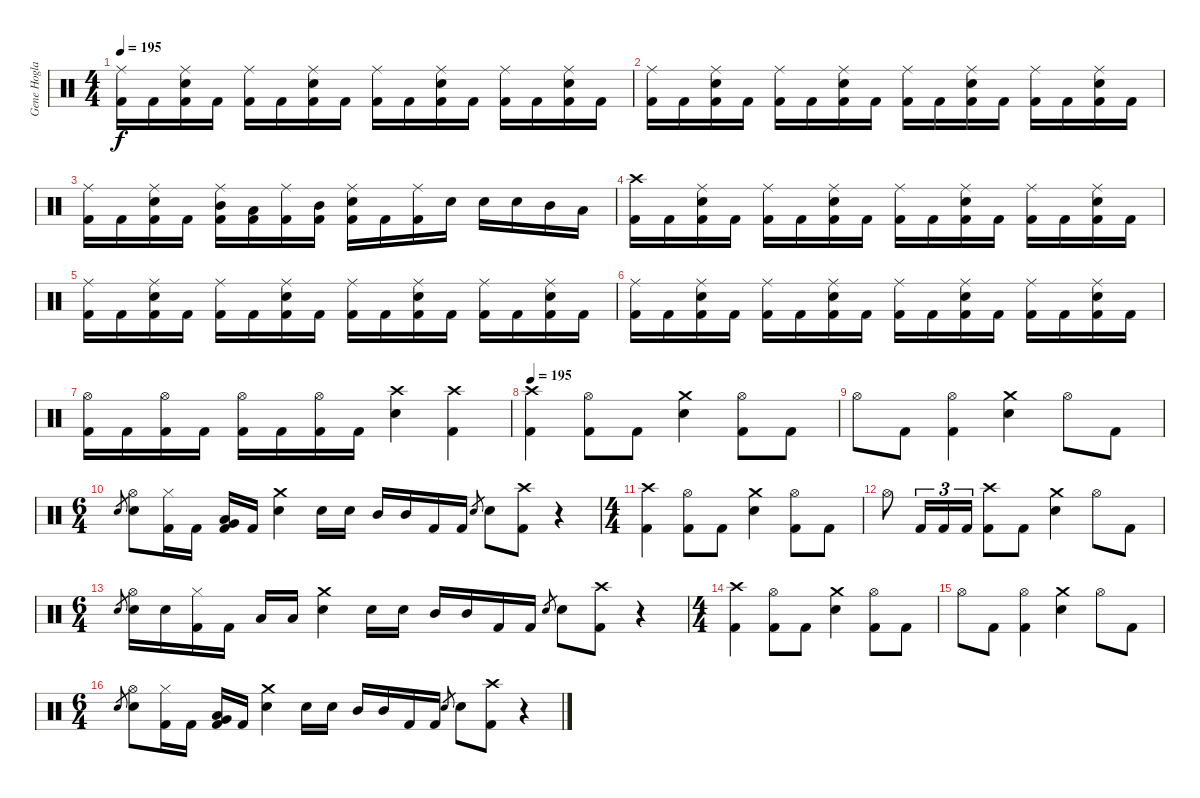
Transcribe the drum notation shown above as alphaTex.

\track ("Gene Hoglan" "Gene Hogla") {instrument percussion}
\staff {score}
\articulation defaults
\ts (4 4)
\tempo 195
\clef neutral
\ks c
("Ride (middle)" "Kick (hit) 2").16{dy f} "Kick (hit) 2".16 ("Ride (middle)" "Electric Snare (hit)" "Kick (hit) 2").16 "Kick (hit) 2".16 ("Ride (middle)" "Kick (hit) 2").16 "Kick (hit) 2".16 ("Ride (middle)" "Electric Snare (hit)" "Kick (hit) 2").16 "Kick (hit) 2".16 ("Ride (middle)" "Kick (hit) 2").16 "Kick (hit) 2".16 ("Ride (middle)" "Electric Snare (hit)" "Kick (hit) 2").16 "Kick (hit) 2".16 ("Ride (middle)" "Kick (hit) 2").16 "Kick (hit) 2".16 ("Ride (middle)" "Electric Snare (hit)" "Kick (hit) 2").16 "Kick (hit) 2".16 |
("Ride (middle)" "Kick (hit) 2").16 "Kick (hit) 2".16 ("Ride (middle)" "Electric Snare (hit)" "Kick (hit) 2").16 "Kick (hit) 2".16 ("Ride (middle)" "Kick (hit) 2").16 "Kick (hit) 2".16 ("Ride (middle)" "Electric Snare (hit)" "Kick (hit) 2").16 "Kick (hit) 2".16 ("Ride (middle)" "Kick (hit) 2").16 "Kick (hit) 2".16 ("Ride (middle)" "Electric Snare (hit)" "Kick (hit) 2").16 "Kick (hit) 2".16 ("Ride (middle)" "Kick (hit) 2").16 "Kick (hit) 2".16 ("Ride (middle)" "Electric Snare (hit)" "Kick (hit) 2").16 "Kick (hit) 2".16 |
("Ride (middle)" "Kick (hit) 2").16 "Kick (hit) 2".16 ("Ride (middle)" "Electric Snare (hit)" "Kick (hit) 2").16 "Kick (hit) 2".16 ("Ride (middle)" "Mid Tom (hit)" "Kick (hit) 2").16 ("Low Tom (hit)" "Kick (hit) 2").16 ("Ride (middle)" "Kick (hit) 2").16 ("Mid Tom (hit)" "Kick (hit) 2").16 ("Ride (middle)" "Electric Snare (hit)" "Kick (hit) 2").16 "Kick (hit) 2".16 ("Ride (middle)" "Kick (hit) 2").16 "Electric Snare (hit)".16 "Electric Snare (hit)".16 "Electric Snare (hit)".16 "Mid Tom (hit)".16 "Low Tom (hit)".16 |
("Crash high (hit)" "Kick (hit) 2").16 "Kick (hit) 2".16 ("Ride (middle)" "Electric Snare (hit)" "Kick (hit) 2").16 "Kick (hit) 2".16 ("Ride (middle)" "Kick (hit) 2").16 "Kick (hit) 2".16 ("Ride (middle)" "Electric Snare (hit)" "Kick (hit) 2").16 "Kick (hit) 2".16 ("Ride (middle)" "Kick (hit) 2").16 "Kick (hit) 2".16 ("Ride (middle)" "Electric Snare (hit)" "Kick (hit) 2").16 "Kick (hit) 2".16 ("Ride (middle)" "Kick (hit) 2").16 "Kick (hit) 2".16 ("Ride (middle)" "Electric Snare (hit)" "Kick (hit) 2").16 "Kick (hit) 2".16 |
("Ride (middle)" "Kick (hit) 2").16 "Kick (hit) 2".16 ("Ride (middle)" "Electric Snare (hit)" "Kick (hit) 2").16 "Kick (hit) 2".16 ("Ride (middle)" "Kick (hit) 2").16 "Kick (hit) 2".16 ("Ride (middle)" "Electric Snare (hit)" "Kick (hit) 2").16 "Kick (hit) 2".16 ("Ride (middle)" "Kick (hit) 2").16 "Kick (hit) 2".16 ("Ride (middle)" "Electric Snare (hit)" "Kick (hit) 2").16 "Kick (hit) 2".16 ("Ride (middle)" "Kick (hit) 2").16 "Kick (hit) 2".16 ("Ride (middle)" "Electric Snare (hit)" "Kick (hit) 2").16 "Kick (hit) 2".16 |
("Ride (middle)" "Kick (hit) 2").16 "Kick (hit) 2".16 ("Ride (middle)" "Electric Snare (hit)" "Kick (hit) 2").16 "Kick (hit) 2".16 ("Ride (middle)" "Kick (hit) 2").16 "Kick (hit) 2".16 ("Ride (middle)" "Electric Snare (hit)" "Kick (hit) 2").16 "Kick (hit) 2".16 ("Ride (middle)" "Kick (hit) 2").16 "Kick (hit) 2".16 ("Ride (middle)" "Electric Snare (hit)" "Kick (hit) 2").16 "Kick (hit) 2".16 ("Ride (middle)" "Kick (hit) 2").16 "Kick (hit) 2".16 ("Ride (middle)" "Electric Snare (hit)" "Kick (hit) 2").16 "Kick (hit) 2".16 |
("Hi-Hat (open)" "Kick (hit) 2").16 "Kick (hit) 2".16 ("Hi-Hat (open)" "Kick (hit) 2").16 "Kick (hit) 2".16 ("Hi-Hat (open)" "Kick (hit) 2").16 "Kick (hit) 2".16 ("Hi-Hat (open)" "Kick (hit) 2").16 "Kick (hit) 2".16 ("Crash high (hit)" "Electric Snare (hit)").4 ("Crash high (hit)" "Kick (hit) 2").4 |
\tempo 195
("Crash high (hit)" "Kick (hit) 2").4 ("Hi-Hat (open)" "Kick (hit) 2").8 "Kick (hit) 2".8 ("Crash medium (hit)" "Electric Snare (hit)").4 ("Hi-Hat (open)" "Kick (hit) 2").8 "Kick (hit) 2".8 |
"Hi-Hat (open)".8 "Kick (hit) 2".8 ("Hi-Hat (open)" "Kick (hit) 2").4 ("Crash medium (hit)" "Electric Snare (hit)").4 "Hi-Hat (open)".8 "Kick (hit) 2".8 |
\ts (6 4)
"Electric Snare (hit)".8{gr} ("Hi-Hat (open)" "Electric Snare (hit)").8 ("Hi-Hat (closed)" "Kick (hit) 2").16 "Kick (hit) 2".16 ("Low Tom (hit)" "Very Low Tom (hit)" "Kick (hit) 2").16 "Kick (hit) 2".16 ("Crash medium (hit)" "Electric Snare (hit)").4 "Electric Snare (hit)".16 "Electric Snare (hit)".16 "Mid Tom (hit)".16 "Mid Tom (hit)".16 "Kick (hit) 2".16 "Kick (hit) 2".16 "Electric Snare (hit)".8{gr} "Electric Snare (hit)".8 ("Crash high (hit)" "Kick (hit) 2").8 r.4 |
\ts (4 4)
("Crash high (hit)" "Kick (hit) 2").4 ("Hi-Hat (open)" "Kick (hit) 2").8 "Kick (hit) 2".8 ("Crash medium (hit)" "Electric Snare (hit)").4 ("Hi-Hat (open)" "Kick (hit) 2").8 "Kick (hit) 2".8 |
"Hi-Hat (open)".8 "Kick (hit) 2".16{tu (3 2)} "Kick (hit) 2".16{tu (3 2)} "Kick (hit) 2".16{tu (3 2)} ("Crash high (hit)" "Kick (hit) 2").8 "Kick (hit) 2".8 ("Crash medium (hit)" "Electric Snare (hit)").4 "Hi-Hat (open)".8 "Kick (hit) 2".8 |
\ts (6 4)
"Electric Snare (hit)".8{gr} ("Hi-Hat (open)" "Electric Snare (hit)").16 "Electric Snare (hit)".16 ("Hi-Hat (closed)" "Kick (hit) 2").16 "Kick (hit) 2".16 "Low Tom (hit)".16 "Low Tom (hit)".16 ("Crash medium (hit)" "Electric Snare (hit)").4 "Electric Snare (hit)".16 "Electric Snare (hit)".16 "Mid Tom (hit)".16 "Mid Tom (hit)".16 "Kick (hit) 2".16 "Kick (hit) 2".16 "Electric Snare (hit)".8{gr} "Electric Snare (hit)".8 ("Crash high (hit)" "Kick (hit) 2").8 r.4 |
\ts (4 4)
("Crash high (hit)" "Kick (hit) 2").4 ("Hi-Hat (open)" "Kick (hit) 2").8 "Kick (hit) 2".8 ("Crash medium (hit)" "Electric Snare (hit)").4 ("Hi-Hat (open)" "Kick (hit) 2").8 "Kick (hit) 2".8 |
"Hi-Hat (open)".8 "Kick (hit) 2".8 ("Hi-Hat (open)" "Kick (hit) 2").4 ("Crash medium (hit)" "Electric Snare (hit)").4 "Hi-Hat (open)".8 "Kick (hit) 2".8 |
\ts (6 4)
"Electric Snare (hit)".8{gr} ("Hi-Hat (open)" "Electric Snare (hit)").8 ("Hi-Hat (closed)" "Kick (hit) 2").16 "Kick (hit) 2".16 ("Low Tom (hit)" "Very Low Tom (hit)" "Kick (hit) 2").16 "Kick (hit) 2".16 ("Crash medium (hit)" "Electric Snare (hit)").4 "Electric Snare (hit)".16 "Electric Snare (hit)".16 "Mid Tom (hit)".16 "Mid Tom (hit)".16 "Kick (hit) 2".16 "Kick (hit) 2".16 "Electric Snare (hit)".8{gr} "Electric Snare (hit)".8 ("Crash high (hit)" "Kick (hit) 2").8 r.4
